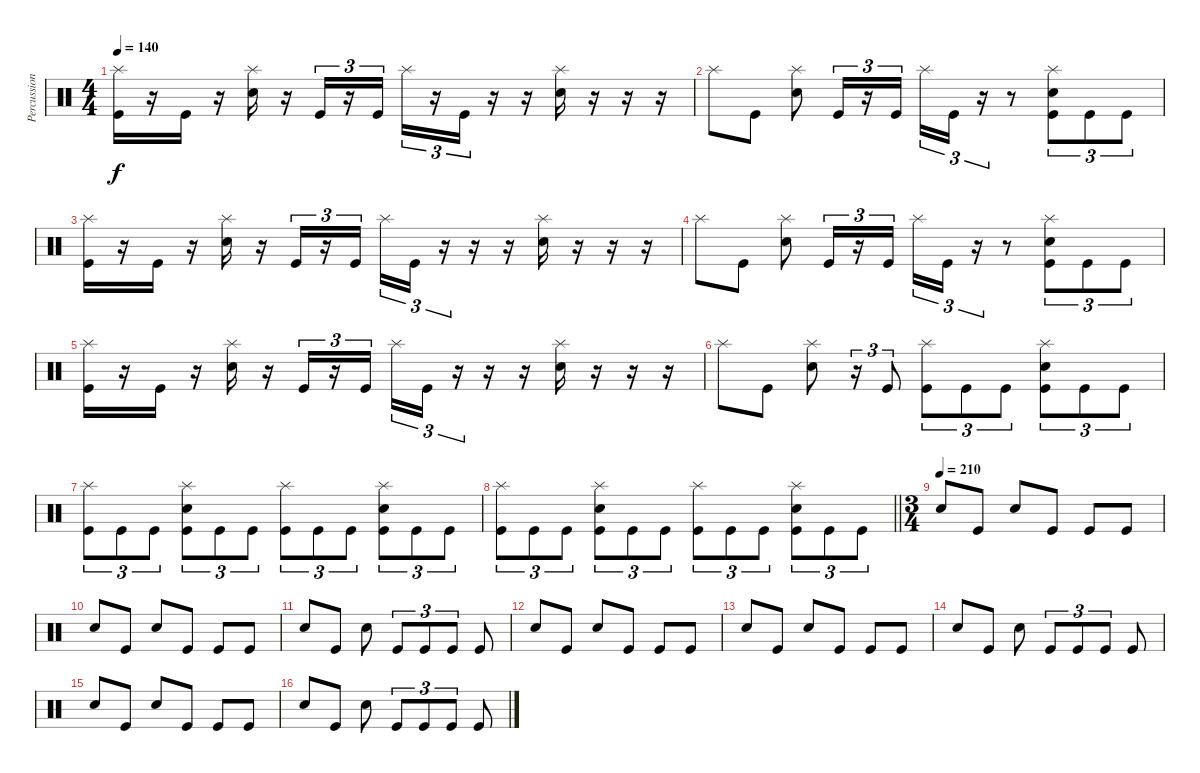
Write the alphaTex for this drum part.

\track ("Percussion" "Percussion") {instrument percussion}
\staff
\articulation defaults
\ts (4 4)
\tempo 140
\clef neutral
\ks c
("Splash (hit)" "Kick (hit)").16{dy f} r.16 "Kick (hit)".16 r.16 ("Splash (hit)" "Snare (hit) 2").16 r.16 "Kick (hit)".16{tu (3 2)} r.16{tu (3 2)} "Kick (hit)".16{tu (3 2)} "Splash (hit)".16{tu (3 2)} r.16{tu (3 2)} "Kick (hit)".16{tu (3 2)} r.16 r.16 ("Splash (hit)" "Snare (hit) 2").16 r.16 r.16 r.16 |
"Splash (hit)".8 "Kick (hit)".8 ("Splash (hit)" "Snare (hit) 2").8 "Kick (hit)".16{tu (3 2)} r.16{tu (3 2)} "Kick (hit)".16{tu (3 2)} "Splash (hit)".16{tu (3 2)} "Kick (hit)".16{tu (3 2)} r.16{tu (3 2)} r.8 ("Splash (hit)" "Snare (hit) 2" "Kick (hit)").8{tu (3 2)} "Kick (hit)".8{tu (3 2)} "Kick (hit)".8{tu (3 2)} |
("Splash (hit)" "Kick (hit)").16 r.16 "Kick (hit)".16 r.16 ("Splash (hit)" "Snare (hit) 2").16 r.16 "Kick (hit)".16{tu (3 2)} r.16{tu (3 2)} "Kick (hit)".16{tu (3 2)} "Splash (hit)".16{tu (3 2)} "Kick (hit)".16{tu (3 2)} r.16{tu (3 2)} r.16 r.16 ("Splash (hit)" "Snare (hit) 2").16 r.16 r.16 r.16 |
"Splash (hit)".8 "Kick (hit)".8 ("Splash (hit)" "Snare (hit) 2").8 "Kick (hit)".16{tu (3 2)} r.16{tu (3 2)} "Kick (hit)".16{tu (3 2)} "Splash (hit)".16{tu (3 2)} "Kick (hit)".16{tu (3 2)} r.16{tu (3 2)} r.8 ("Splash (hit)" "Snare (hit) 2" "Kick (hit)").8{tu (3 2)} "Kick (hit)".8{tu (3 2)} "Kick (hit)".8{tu (3 2)} |
("Splash (hit)" "Kick (hit)").16 r.16 "Kick (hit)".16 r.16 ("Splash (hit)" "Snare (hit) 2").16 r.16 "Kick (hit)".16{tu (3 2)} r.16{tu (3 2)} "Kick (hit)".16{tu (3 2)} "Splash (hit)".16{tu (3 2)} "Kick (hit)".16{tu (3 2)} r.16{tu (3 2)} r.16 r.16 ("Splash (hit)" "Snare (hit) 2").16 r.16 r.16 r.16 |
"Splash (hit)".8 "Kick (hit)".8 ("Splash (hit)" "Snare (hit) 2").8 r.16{tu (3 2)} "Kick (hit)".8{tu (3 2)} ("Splash (hit)" "Kick (hit)").8{tu (3 2)} "Kick (hit)".8{tu (3 2)} "Kick (hit)".8{tu (3 2)} ("Splash (hit)" "Snare (hit) 2" "Kick (hit)").8{tu (3 2)} "Kick (hit)".8{tu (3 2)} "Kick (hit)".8{tu (3 2)} |
("Splash (hit)" "Kick (hit)").8{tu (3 2)} "Kick (hit)".8{tu (3 2)} "Kick (hit)".8{tu (3 2)} ("Splash (hit)" "Snare (hit) 2" "Kick (hit)").8{tu (3 2)} "Kick (hit)".8{tu (3 2)} "Kick (hit)".8{tu (3 2)} ("Splash (hit)" "Kick (hit)").8{tu (3 2)} "Kick (hit)".8{tu (3 2)} "Kick (hit)".8{tu (3 2)} ("Splash (hit)" "Snare (hit) 2" "Kick (hit)").8{tu (3 2)} "Kick (hit)".8{tu (3 2)} "Kick (hit)".8{tu (3 2)} |
\barLineRight lightlight
("Splash (hit)" "Kick (hit)").8{tu (3 2)} "Kick (hit)".8{tu (3 2)} "Kick (hit)".8{tu (3 2)} ("Splash (hit)" "Snare (hit) 2" "Kick (hit)").8{tu (3 2)} "Kick (hit)".8{tu (3 2)} "Kick (hit)".8{tu (3 2)} ("Splash (hit)" "Kick (hit)").8{tu (3 2)} "Kick (hit)".8{tu (3 2)} "Kick (hit)".8{tu (3 2)} ("Splash (hit)" "Snare (hit) 2" "Kick (hit)").8{tu (3 2)} "Kick (hit)".8{tu (3 2)} "Kick (hit)".8{tu (3 2)} |
\ts (3 4)
\tempo (210)
"Snare (hit) 2".8 "Kick (hit)".8 "Snare (hit) 2".8 "Kick (hit)".8 "Kick (hit)".8 "Kick (hit)".8 |
"Snare (hit) 2".8 "Kick (hit)".8 "Snare (hit) 2".8 "Kick (hit)".8 "Kick (hit)".8 "Kick (hit)".8 |
"Snare (hit) 2".8 "Kick (hit)".8 "Snare (hit) 2".8 "Kick (hit)".8{tu (3 2)} "Kick (hit)".8{tu (3 2)} "Kick (hit)".8{tu (3 2)} "Kick (hit)".8 |
"Snare (hit) 2".8 "Kick (hit)".8 "Snare (hit) 2".8 "Kick (hit)".8 "Kick (hit)".8 "Kick (hit)".8 |
"Snare (hit) 2".8 "Kick (hit)".8 "Snare (hit) 2".8 "Kick (hit)".8 "Kick (hit)".8 "Kick (hit)".8 |
"Snare (hit) 2".8 "Kick (hit)".8 "Snare (hit) 2".8 "Kick (hit)".8{tu (3 2)} "Kick (hit)".8{tu (3 2)} "Kick (hit)".8{tu (3 2)} "Kick (hit)".8 |
"Snare (hit) 2".8 "Kick (hit)".8 "Snare (hit) 2".8 "Kick (hit)".8 "Kick (hit)".8 "Kick (hit)".8 |
"Snare (hit) 2".8 "Kick (hit)".8 "Snare (hit) 2".8 "Kick (hit)".8{tu (3 2)} "Kick (hit)".8{tu (3 2)} "Kick (hit)".8{tu (3 2)} "Kick (hit)".8
